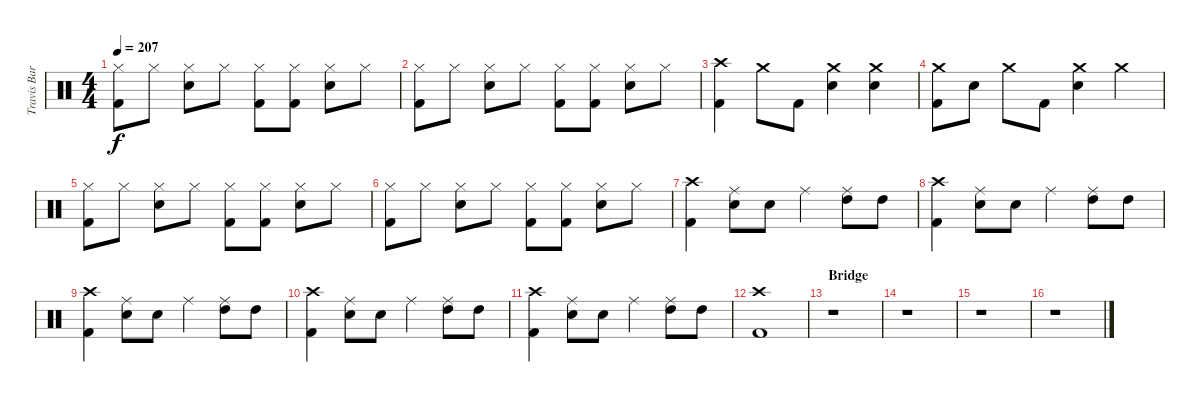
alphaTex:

\track ("Travis Barker" "Travis Bar") {instrument percussion}
\staff {score}
\articulation defaults
\ts (4 4)
\tempo 207
\clef neutral
\ks c
("Hi-Hat (closed)" "Kick (hit) 2").8{dy f} "Hi-Hat (closed)".8 ("Hi-Hat (closed)" "Electric Snare (hit)").8 "Hi-Hat (closed)".8 ("Hi-Hat (closed)" "Kick (hit) 2").8 ("Hi-Hat (closed)" "Kick (hit) 2").8 ("Hi-Hat (closed)" "Electric Snare (hit)").8 "Hi-Hat (closed)".8 |
("Hi-Hat (closed)" "Kick (hit) 2").8 "Hi-Hat (closed)".8 ("Hi-Hat (closed)" "Electric Snare (hit)").8 "Hi-Hat (closed)".8 ("Hi-Hat (closed)" "Kick (hit) 2").8 ("Hi-Hat (closed)" "Kick (hit) 2").8 ("Hi-Hat (closed)" "Electric Snare (hit)").8 "Hi-Hat (closed)".8 |
("Crash high (hit)" "Kick (hit) 2").4 "Crash medium (hit)".8 "Kick (hit) 2".8 ("Crash medium (hit)" "Electric Snare (hit)").4 ("Crash medium (hit)" "Electric Snare (hit)").4 |
("Crash medium (hit)" "Kick (hit) 2").8 "Electric Snare (hit)".8 "Crash medium (hit)".8 "Kick (hit) 2".8 ("Crash medium (hit)" "Electric Snare (hit)").4 "Crash medium (hit)".4 |
("Hi-Hat (closed)" "Kick (hit) 2").8 "Hi-Hat (closed)".8 ("Hi-Hat (closed)" "Electric Snare (hit)").8 "Hi-Hat (closed)".8 ("Hi-Hat (closed)" "Kick (hit) 2").8 ("Hi-Hat (closed)" "Kick (hit) 2").8 ("Hi-Hat (closed)" "Electric Snare (hit)").8 "Hi-Hat (closed)".8 |
("Hi-Hat (closed)" "Kick (hit) 2").8 "Hi-Hat (closed)".8 ("Hi-Hat (closed)" "Electric Snare (hit)").8 "Hi-Hat (closed)".8 ("Hi-Hat (closed)" "Kick (hit) 2").8 ("Hi-Hat (closed)" "Kick (hit) 2").8 ("Hi-Hat (closed)" "Electric Snare (hit)").8 "Hi-Hat (closed)".8 |
("Crash high (hit)" "Kick (hit) 2").4 ("Ride (middle)" "Electric Snare (hit)").8 "Electric Snare (hit)".8 "Ride (middle)".4 ("Ride (middle)" "High Tom (hit)").8 "High Tom (hit)".8 |
("Crash high (hit)" "Kick (hit) 2").4 ("Ride (middle)" "Electric Snare (hit)").8 "Electric Snare (hit)".8 "Ride (middle)".4 ("Ride (middle)" "High Tom (hit)").8 "High Tom (hit)".8 |
("Crash high (hit)" "Kick (hit) 2").4 ("Ride (middle)" "Electric Snare (hit)").8 "Electric Snare (hit)".8 "Ride (middle)".4 ("Ride (middle)" "High Tom (hit)").8 "High Tom (hit)".8 |
("Crash high (hit)" "Kick (hit) 2").4 ("Ride (middle)" "Electric Snare (hit)").8 "Electric Snare (hit)".8 "Ride (middle)".4 ("Ride (middle)" "High Tom (hit)").8 "High Tom (hit)".8 |
("Crash high (hit)" "Kick (hit) 2").4 ("Ride (middle)" "Electric Snare (hit)").8 "Electric Snare (hit)".8 "Ride (middle)".4 ("Ride (middle)" "High Tom (hit)").8 "High Tom (hit)".8 |
("Crash high (hit)" "Kick (hit) 2").1 |
\section ("" "Bridge")
r.1 |
r.1 |
r.1 |
r.1
